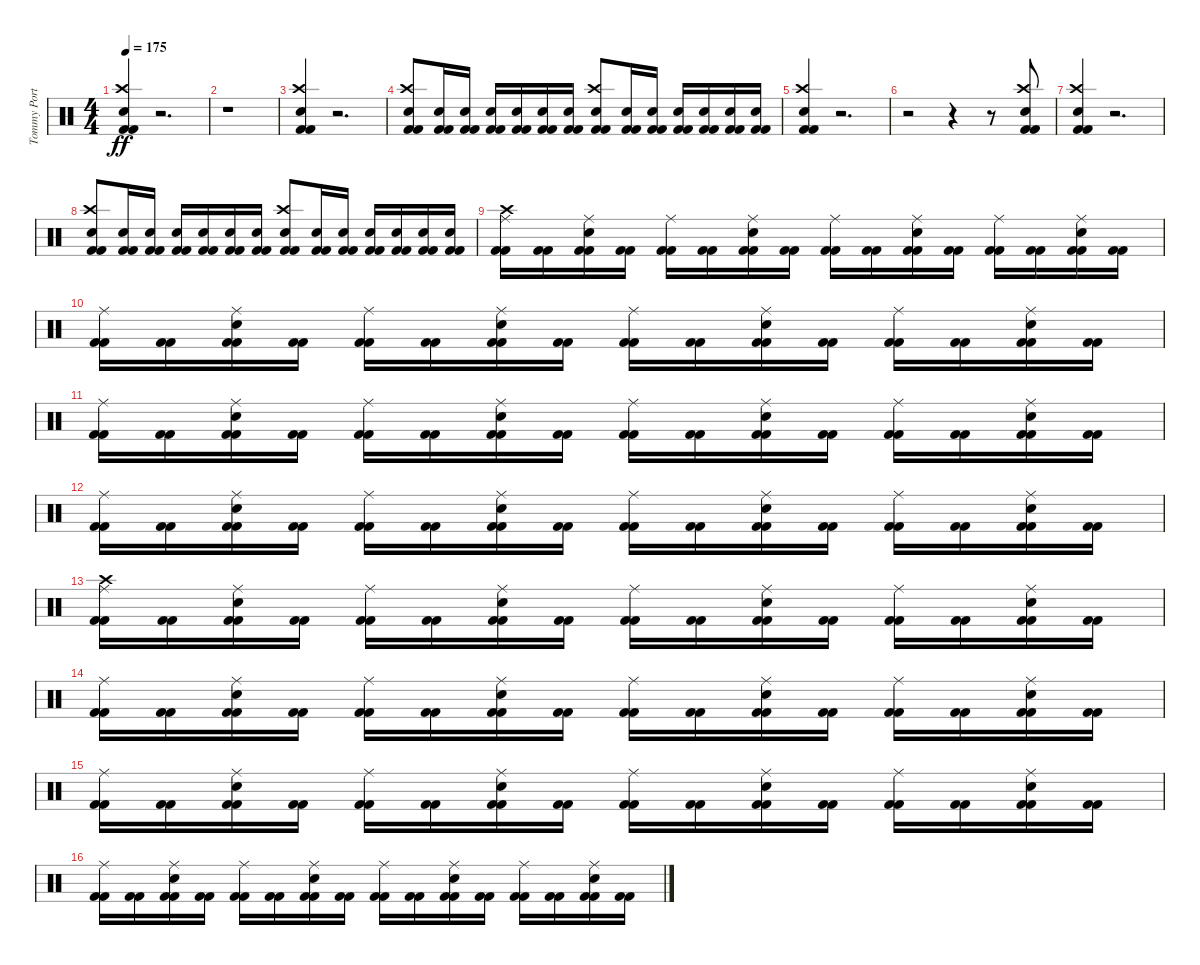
\track ("Tommy Portimo" "Tommy Port") {instrument percussion}
\staff {score}
\articulation defaults
\ts (4 4)
\tempo 175
\clef neutral
\ks c
("Kick (hit) 2" "Kick (hit) 2" "Crash high (hit)" "Electric Snare (hit)").4{dy ff} r.2{d} |
r.1 |
("Kick (hit) 2" "Kick (hit) 2" "Crash high (hit)" "Electric Snare (hit)").4 r.2{d} |
("Kick (hit) 2" "Kick (hit) 2" "Crash high (hit)" "Electric Snare (hit)").8 ("Kick (hit) 2" "Kick (hit) 2" "Electric Snare (hit)").16 ("Kick (hit) 2" "Kick (hit) 2" "Electric Snare (hit)").16 ("Kick (hit) 2" "Kick (hit) 2" "Electric Snare (hit)").16 ("Kick (hit) 2" "Kick (hit) 2" "Electric Snare (hit)").16 ("Kick (hit) 2" "Kick (hit) 2" "Electric Snare (hit)").16 ("Kick (hit) 2" "Kick (hit) 2" "Electric Snare (hit)").16 ("Kick (hit) 2" "Kick (hit) 2" "Crash high (hit)" "Electric Snare (hit)").8 ("Kick (hit) 2" "Kick (hit) 2" "Electric Snare (hit)").16 ("Kick (hit) 2" "Kick (hit) 2" "Electric Snare (hit)").16 ("Kick (hit) 2" "Kick (hit) 2" "Electric Snare (hit)").16 ("Kick (hit) 2" "Kick (hit) 2" "Electric Snare (hit)").16 ("Kick (hit) 2" "Kick (hit) 2" "Electric Snare (hit)").16 ("Kick (hit) 2" "Kick (hit) 2" "Electric Snare (hit)").16 |
("Kick (hit) 2" "Kick (hit) 2" "Crash high (hit)" "Electric Snare (hit)").4 r.2{d} |
r.2 r.4 r.8 ("Kick (hit) 2" "Kick (hit) 2" "Crash high (hit)" "Electric Snare (hit)").8 |
("Kick (hit) 2" "Kick (hit) 2" "Crash high (hit)" "Electric Snare (hit)").4 r.2{d} |
("Kick (hit) 2" "Kick (hit) 2" "Crash high (hit)" "Electric Snare (hit)").8 ("Kick (hit) 2" "Kick (hit) 2" "Electric Snare (hit)").16 ("Kick (hit) 2" "Kick (hit) 2" "Electric Snare (hit)").16 ("Kick (hit) 2" "Kick (hit) 2" "Electric Snare (hit)").16 ("Kick (hit) 2" "Kick (hit) 2" "Electric Snare (hit)").16 ("Kick (hit) 2" "Kick (hit) 2" "Electric Snare (hit)").16 ("Kick (hit) 2" "Kick (hit) 2" "Electric Snare (hit)").16 ("Kick (hit) 2" "Kick (hit) 2" "Crash high (hit)" "Electric Snare (hit)").8 ("Kick (hit) 2" "Kick (hit) 2" "Electric Snare (hit)").16 ("Kick (hit) 2" "Kick (hit) 2" "Electric Snare (hit)").16 ("Kick (hit) 2" "Kick (hit) 2" "Electric Snare (hit)").16 ("Kick (hit) 2" "Kick (hit) 2" "Electric Snare (hit)").16 ("Kick (hit) 2" "Kick (hit) 2" "Electric Snare (hit)").16 ("Kick (hit) 2" "Kick (hit) 2" "Electric Snare (hit)").16 |
("Kick (hit) 2" "Kick (hit) 2" "Ride (middle)" "Crash high (hit)").16 ("Kick (hit) 2" "Kick (hit) 2").16 ("Kick (hit) 2" "Kick (hit) 2" "Ride (middle)" "Electric Snare (hit)").16 ("Kick (hit) 2" "Kick (hit) 2").16 ("Kick (hit) 2" "Kick (hit) 2" "Ride (middle)").16 ("Kick (hit) 2" "Kick (hit) 2").16 ("Kick (hit) 2" "Kick (hit) 2" "Ride (middle)" "Electric Snare (hit)").16 ("Kick (hit) 2" "Kick (hit) 2").16 ("Kick (hit) 2" "Kick (hit) 2" "Ride (middle)").16 ("Kick (hit) 2" "Kick (hit) 2").16 ("Kick (hit) 2" "Kick (hit) 2" "Ride (middle)" "Electric Snare (hit)").16 ("Kick (hit) 2" "Kick (hit) 2").16 ("Kick (hit) 2" "Kick (hit) 2" "Ride (middle)").16 ("Kick (hit) 2" "Kick (hit) 2").16 ("Kick (hit) 2" "Kick (hit) 2" "Ride (middle)" "Electric Snare (hit)").16 ("Kick (hit) 2" "Kick (hit) 2").16 |
("Kick (hit) 2" "Kick (hit) 2" "Ride (middle)").16 ("Kick (hit) 2" "Kick (hit) 2").16 ("Kick (hit) 2" "Kick (hit) 2" "Ride (middle)" "Electric Snare (hit)").16 ("Kick (hit) 2" "Kick (hit) 2").16 ("Kick (hit) 2" "Kick (hit) 2" "Ride (middle)").16 ("Kick (hit) 2" "Kick (hit) 2").16 ("Kick (hit) 2" "Kick (hit) 2" "Ride (middle)" "Electric Snare (hit)").16 ("Kick (hit) 2" "Kick (hit) 2").16 ("Kick (hit) 2" "Kick (hit) 2" "Ride (middle)").16 ("Kick (hit) 2" "Kick (hit) 2").16 ("Kick (hit) 2" "Kick (hit) 2" "Ride (middle)" "Electric Snare (hit)").16 ("Kick (hit) 2" "Kick (hit) 2").16 ("Kick (hit) 2" "Kick (hit) 2" "Ride (middle)").16 ("Kick (hit) 2" "Kick (hit) 2").16 ("Kick (hit) 2" "Kick (hit) 2" "Ride (middle)" "Electric Snare (hit)").16 ("Kick (hit) 2" "Kick (hit) 2").16 |
("Kick (hit) 2" "Kick (hit) 2" "Ride (middle)").16 ("Kick (hit) 2" "Kick (hit) 2").16 ("Kick (hit) 2" "Kick (hit) 2" "Ride (middle)" "Electric Snare (hit)").16 ("Kick (hit) 2" "Kick (hit) 2").16 ("Kick (hit) 2" "Kick (hit) 2" "Ride (middle)").16 ("Kick (hit) 2" "Kick (hit) 2").16 ("Kick (hit) 2" "Kick (hit) 2" "Ride (middle)" "Electric Snare (hit)").16 ("Kick (hit) 2" "Kick (hit) 2").16 ("Kick (hit) 2" "Kick (hit) 2" "Ride (middle)").16 ("Kick (hit) 2" "Kick (hit) 2").16 ("Kick (hit) 2" "Kick (hit) 2" "Ride (middle)" "Electric Snare (hit)").16 ("Kick (hit) 2" "Kick (hit) 2").16 ("Kick (hit) 2" "Kick (hit) 2" "Ride (middle)").16 ("Kick (hit) 2" "Kick (hit) 2").16 ("Kick (hit) 2" "Kick (hit) 2" "Ride (middle)" "Electric Snare (hit)").16 ("Kick (hit) 2" "Kick (hit) 2").16 |
("Kick (hit) 2" "Kick (hit) 2" "Ride (middle)").16 ("Kick (hit) 2" "Kick (hit) 2").16 ("Kick (hit) 2" "Kick (hit) 2" "Ride (middle)" "Electric Snare (hit)").16 ("Kick (hit) 2" "Kick (hit) 2").16 ("Kick (hit) 2" "Kick (hit) 2" "Ride (middle)").16 ("Kick (hit) 2" "Kick (hit) 2").16 ("Kick (hit) 2" "Kick (hit) 2" "Ride (middle)" "Electric Snare (hit)").16 ("Kick (hit) 2" "Kick (hit) 2").16 ("Kick (hit) 2" "Kick (hit) 2" "Ride (middle)").16 ("Kick (hit) 2" "Kick (hit) 2").16 ("Kick (hit) 2" "Kick (hit) 2" "Ride (middle)" "Electric Snare (hit)").16 ("Kick (hit) 2" "Kick (hit) 2").16 ("Kick (hit) 2" "Kick (hit) 2" "Ride (middle)").16 ("Kick (hit) 2" "Kick (hit) 2").16 ("Kick (hit) 2" "Kick (hit) 2" "Ride (middle)" "Electric Snare (hit)").16 ("Kick (hit) 2" "Kick (hit) 2").16 |
("Kick (hit) 2" "Kick (hit) 2" "Ride (middle)" "Crash high (hit)").16 ("Kick (hit) 2" "Kick (hit) 2").16 ("Kick (hit) 2" "Kick (hit) 2" "Ride (middle)" "Electric Snare (hit)").16 ("Kick (hit) 2" "Kick (hit) 2").16 ("Kick (hit) 2" "Kick (hit) 2" "Ride (middle)").16 ("Kick (hit) 2" "Kick (hit) 2").16 ("Kick (hit) 2" "Kick (hit) 2" "Ride (middle)" "Electric Snare (hit)").16 ("Kick (hit) 2" "Kick (hit) 2").16 ("Kick (hit) 2" "Kick (hit) 2" "Ride (middle)").16 ("Kick (hit) 2" "Kick (hit) 2").16 ("Kick (hit) 2" "Kick (hit) 2" "Ride (middle)" "Electric Snare (hit)").16 ("Kick (hit) 2" "Kick (hit) 2").16 ("Kick (hit) 2" "Kick (hit) 2" "Ride (middle)").16 ("Kick (hit) 2" "Kick (hit) 2").16 ("Kick (hit) 2" "Kick (hit) 2" "Ride (middle)" "Electric Snare (hit)").16 ("Kick (hit) 2" "Kick (hit) 2").16 |
("Kick (hit) 2" "Kick (hit) 2" "Ride (middle)").16 ("Kick (hit) 2" "Kick (hit) 2").16 ("Kick (hit) 2" "Kick (hit) 2" "Ride (middle)" "Electric Snare (hit)").16 ("Kick (hit) 2" "Kick (hit) 2").16 ("Kick (hit) 2" "Kick (hit) 2" "Ride (middle)").16 ("Kick (hit) 2" "Kick (hit) 2").16 ("Kick (hit) 2" "Kick (hit) 2" "Ride (middle)" "Electric Snare (hit)").16 ("Kick (hit) 2" "Kick (hit) 2").16 ("Kick (hit) 2" "Kick (hit) 2" "Ride (middle)").16 ("Kick (hit) 2" "Kick (hit) 2").16 ("Kick (hit) 2" "Kick (hit) 2" "Ride (middle)" "Electric Snare (hit)").16 ("Kick (hit) 2" "Kick (hit) 2").16 ("Kick (hit) 2" "Kick (hit) 2" "Ride (middle)").16 ("Kick (hit) 2" "Kick (hit) 2").16 ("Kick (hit) 2" "Kick (hit) 2" "Ride (middle)" "Electric Snare (hit)").16 ("Kick (hit) 2" "Kick (hit) 2").16 |
("Kick (hit) 2" "Kick (hit) 2" "Ride (middle)").16 ("Kick (hit) 2" "Kick (hit) 2").16 ("Kick (hit) 2" "Kick (hit) 2" "Ride (middle)" "Electric Snare (hit)").16 ("Kick (hit) 2" "Kick (hit) 2").16 ("Kick (hit) 2" "Kick (hit) 2" "Ride (middle)").16 ("Kick (hit) 2" "Kick (hit) 2").16 ("Kick (hit) 2" "Kick (hit) 2" "Ride (middle)" "Electric Snare (hit)").16 ("Kick (hit) 2" "Kick (hit) 2").16 ("Kick (hit) 2" "Kick (hit) 2" "Ride (middle)").16 ("Kick (hit) 2" "Kick (hit) 2").16 ("Kick (hit) 2" "Kick (hit) 2" "Ride (middle)" "Electric Snare (hit)").16 ("Kick (hit) 2" "Kick (hit) 2").16 ("Kick (hit) 2" "Kick (hit) 2" "Ride (middle)").16 ("Kick (hit) 2" "Kick (hit) 2").16 ("Kick (hit) 2" "Kick (hit) 2" "Ride (middle)" "Electric Snare (hit)").16 ("Kick (hit) 2" "Kick (hit) 2").16 |
("Kick (hit) 2" "Kick (hit) 2" "Ride (middle)").16 ("Kick (hit) 2" "Kick (hit) 2").16 ("Kick (hit) 2" "Kick (hit) 2" "Ride (middle)" "Electric Snare (hit)").16 ("Kick (hit) 2" "Kick (hit) 2").16 ("Kick (hit) 2" "Kick (hit) 2" "Ride (middle)").16 ("Kick (hit) 2" "Kick (hit) 2").16 ("Kick (hit) 2" "Kick (hit) 2" "Ride (middle)" "Electric Snare (hit)").16 ("Kick (hit) 2" "Kick (hit) 2").16 ("Kick (hit) 2" "Kick (hit) 2" "Ride (middle)").16 ("Kick (hit) 2" "Kick (hit) 2").16 ("Kick (hit) 2" "Kick (hit) 2" "Ride (middle)" "Electric Snare (hit)").16 ("Kick (hit) 2" "Kick (hit) 2").16 ("Kick (hit) 2" "Kick (hit) 2" "Ride (middle)").16 ("Kick (hit) 2" "Kick (hit) 2").16 ("Kick (hit) 2" "Kick (hit) 2" "Ride (middle)" "Electric Snare (hit)").16 ("Kick (hit) 2" "Kick (hit) 2").16
